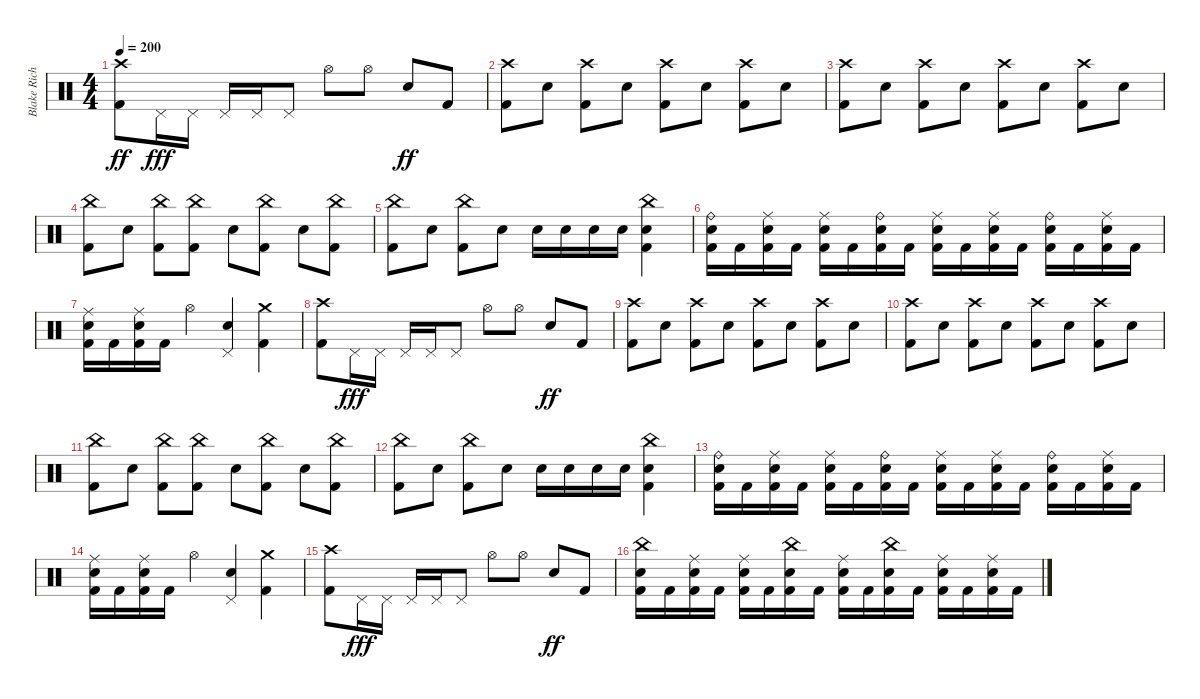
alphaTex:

\track ("Blake Richardson" "Blake Rich") {instrument percussion}
\staff {score}
\articulation defaults
\ts (4 4)
\tempo 200
\clef neutral
\ks c
("Crash high (hit)" "Kick (hit) 2").8{dy ff} "Pedal Hi-Hat (hit)".16{dy fff} "Pedal Hi-Hat (hit)".16 "Pedal Hi-Hat (hit)".16 "Pedal Hi-Hat (hit)".16 "Pedal Hi-Hat (hit)".8 "Hi-Hat (open)".8 "Hi-Hat (open)".8 "Electric Snare (hit)".8{dy ff} "Kick (hit) 2".8 |
("Crash high (hit)" "Kick (hit) 2").8 "Electric Snare (hit)".8 ("Crash high (hit)" "Kick (hit) 2").8 "Electric Snare (hit)".8 ("Crash high (hit)" "Kick (hit) 2").8 "Electric Snare (hit)".8 ("Crash high (hit)" "Kick (hit) 2").8 "Electric Snare (hit)".8 |
("Crash high (hit)" "Kick (hit) 2").8 "Electric Snare (hit)".8 ("Crash high (hit)" "Kick (hit) 2").8 "Electric Snare (hit)".8 ("Crash high (hit)" "Kick (hit) 2").8 "Electric Snare (hit)".8 ("Crash high (hit)" "Kick (hit) 2").8 "Electric Snare (hit)".8 |
("China (hit)" "Kick (hit) 2").8 "Electric Snare (hit)".8 ("China (hit)" "Kick (hit) 2").8 ("China (hit)" "Kick (hit) 2").8 "Electric Snare (hit)".8 ("China (hit)" "Kick (hit) 2").8 "Electric Snare (hit)".8 ("China (hit)" "Kick (hit) 2").8 |
("China (hit)" "Kick (hit) 2").8 "Electric Snare (hit)".8 ("China (hit)" "Kick (hit) 2").8 "Electric Snare (hit)".8 "Electric Snare (hit)".16 "Electric Snare (hit)".16 "Electric Snare (hit)".16 "Electric Snare (hit)".16 ("China (hit)" "Electric Snare (hit)" "Kick (hit) 2").4 |
("Ride (bell)" "Electric Snare (hit)" "Kick (hit) 2").16 "Kick (hit) 2".16 ("Ride (middle)" "Electric Snare (hit)" "Kick (hit) 2").16 "Kick (hit) 2".16 ("Ride (middle)" "Electric Snare (hit)" "Kick (hit) 2").16 "Kick (hit) 2".16 ("Ride (bell)" "Electric Snare (hit)" "Kick (hit) 2").16 "Kick (hit) 2".16 ("Ride (middle)" "Electric Snare (hit)" "Kick (hit) 2").16 "Kick (hit) 2".16 ("Ride (middle)" "Electric Snare (hit)" "Kick (hit) 2").16 "Kick (hit) 2".16 ("Ride (bell)" "Electric Snare (hit)" "Kick (hit) 2").16 "Kick (hit) 2".16 ("Ride (middle)" "Electric Snare (hit)" "Kick (hit) 2").16 "Kick (hit) 2".16 |
("Ride (middle)" "Electric Snare (hit)" "Kick (hit) 2").16 "Kick (hit) 2".16 ("Ride (middle)" "Electric Snare (hit)" "Kick (hit) 2").16 "Kick (hit) 2".16 "Hi-Hat (open)".4 ("Pedal Hi-Hat (hit)" "Electric Snare (hit)").4 ("Crash medium (hit)" "Kick (hit) 2").4 |
("Crash high (hit)" "Kick (hit) 2").8 "Pedal Hi-Hat (hit)".16{dy fff} "Pedal Hi-Hat (hit)".16 "Pedal Hi-Hat (hit)".16 "Pedal Hi-Hat (hit)".16 "Pedal Hi-Hat (hit)".8 "Hi-Hat (open)".8 "Hi-Hat (open)".8 "Electric Snare (hit)".8{dy ff} "Kick (hit) 2".8 |
("Crash high (hit)" "Kick (hit) 2").8 "Electric Snare (hit)".8 ("Crash high (hit)" "Kick (hit) 2").8 "Electric Snare (hit)".8 ("Crash high (hit)" "Kick (hit) 2").8 "Electric Snare (hit)".8 ("Crash high (hit)" "Kick (hit) 2").8 "Electric Snare (hit)".8 |
("Crash high (hit)" "Kick (hit) 2").8 "Electric Snare (hit)".8 ("Crash high (hit)" "Kick (hit) 2").8 "Electric Snare (hit)".8 ("Crash high (hit)" "Kick (hit) 2").8 "Electric Snare (hit)".8 ("Crash high (hit)" "Kick (hit) 2").8 "Electric Snare (hit)".8 |
("China (hit)" "Kick (hit) 2").8 "Electric Snare (hit)".8 ("China (hit)" "Kick (hit) 2").8 ("China (hit)" "Kick (hit) 2").8 "Electric Snare (hit)".8 ("China (hit)" "Kick (hit) 2").8 "Electric Snare (hit)".8 ("China (hit)" "Kick (hit) 2").8 |
("China (hit)" "Kick (hit) 2").8 "Electric Snare (hit)".8 ("China (hit)" "Kick (hit) 2").8 "Electric Snare (hit)".8 "Electric Snare (hit)".16 "Electric Snare (hit)".16 "Electric Snare (hit)".16 "Electric Snare (hit)".16 ("China (hit)" "Electric Snare (hit)" "Kick (hit) 2").4 |
("Ride (bell)" "Electric Snare (hit)" "Kick (hit) 2").16 "Kick (hit) 2".16 ("Ride (middle)" "Electric Snare (hit)" "Kick (hit) 2").16 "Kick (hit) 2".16 ("Ride (middle)" "Electric Snare (hit)" "Kick (hit) 2").16 "Kick (hit) 2".16 ("Ride (bell)" "Electric Snare (hit)" "Kick (hit) 2").16 "Kick (hit) 2".16 ("Ride (middle)" "Electric Snare (hit)" "Kick (hit) 2").16 "Kick (hit) 2".16 ("Ride (middle)" "Electric Snare (hit)" "Kick (hit) 2").16 "Kick (hit) 2".16 ("Ride (bell)" "Electric Snare (hit)" "Kick (hit) 2").16 "Kick (hit) 2".16 ("Ride (middle)" "Electric Snare (hit)" "Kick (hit) 2").16 "Kick (hit) 2".16 |
("Ride (middle)" "Electric Snare (hit)" "Kick (hit) 2").16 "Kick (hit) 2".16 ("Ride (middle)" "Electric Snare (hit)" "Kick (hit) 2").16 "Kick (hit) 2".16 "Hi-Hat (open)".4 ("Pedal Hi-Hat (hit)" "Electric Snare (hit)").4 ("Crash medium (hit)" "Kick (hit) 2").4 |
("Crash high (hit)" "Kick (hit) 2").8 "Pedal Hi-Hat (hit)".16{dy fff} "Pedal Hi-Hat (hit)".16 "Pedal Hi-Hat (hit)".16 "Pedal Hi-Hat (hit)".16 "Pedal Hi-Hat (hit)".8 "Hi-Hat (open)".8 "Hi-Hat (open)".8 "Electric Snare (hit)".8{dy ff} "Kick (hit) 2".8 |
("China (hit)" "Electric Snare (hit)" "Kick (hit) 2").16 "Kick (hit) 2".16 ("Ride (middle)" "Electric Snare (hit)" "Kick (hit) 2").16 "Kick (hit) 2".16 ("Ride (middle)" "Electric Snare (hit)" "Kick (hit) 2").16 "Kick (hit) 2".16 ("China (hit)" "Electric Snare (hit)" "Kick (hit) 2").16 "Kick (hit) 2".16 ("Ride (middle)" "Electric Snare (hit)" "Kick (hit) 2").16 "Kick (hit) 2".16 ("China (hit)" "Electric Snare (hit)" "Kick (hit) 2").16 "Kick (hit) 2".16 ("Ride (middle)" "Electric Snare (hit)" "Kick (hit) 2").16 "Kick (hit) 2".16 ("Ride (middle)" "Electric Snare (hit)" "Kick (hit) 2").16 "Kick (hit) 2".16
